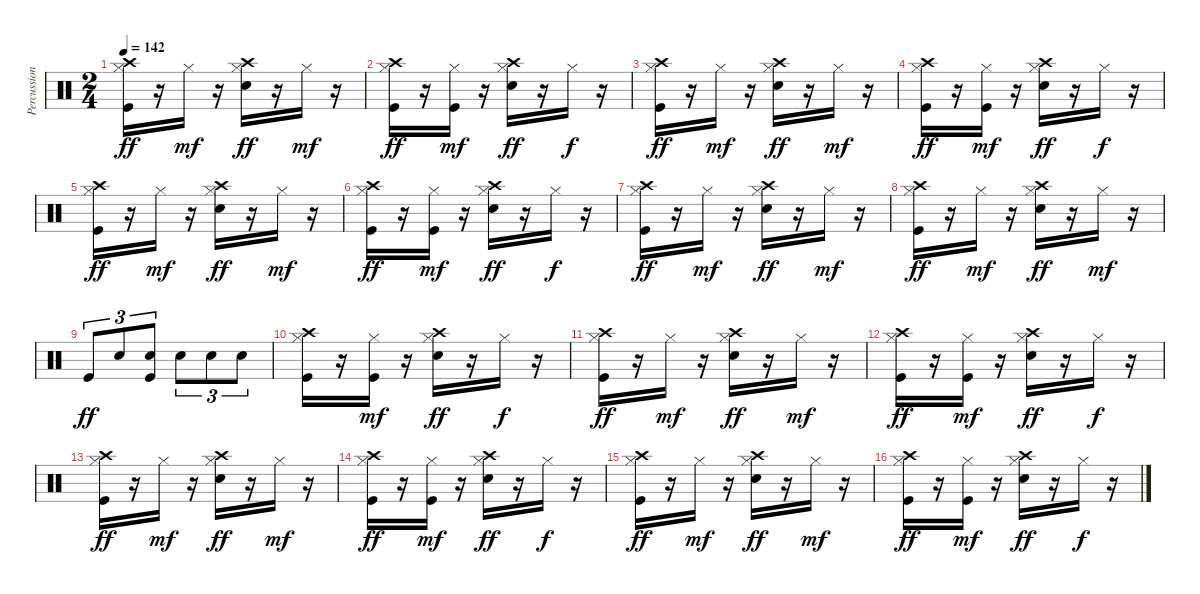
\track ("Percussion" "Percussion") {instrument percussion}
\staff {score}
\articulation defaults
\ts (2 4)
\tempo 142
\clef neutral
\ks c
("Kick (hit)" "Hi-Hat (closed)" "Crash high (hit)").16{dy ff} r.16 "Hi-Hat (closed)".16{dy mf} r.16 ("Snare (hit) 2" "Hi-Hat (closed)" "Crash high (hit)").16{dy ff} r.16 "Hi-Hat (closed)".16{dy mf} r.16 |
("Kick (hit)" "Hi-Hat (closed)" "Crash high (hit)").16{dy ff} r.16 ("Kick (hit)" "Hi-Hat (closed)").16{dy mf} r.16 ("Snare (hit) 2" "Hi-Hat (closed)" "Crash high (hit)").16{dy ff} r.16 "Hi-Hat (closed)".16{dy f} r.16 |
("Kick (hit)" "Hi-Hat (closed)" "Crash high (hit)").16{dy ff} r.16 "Hi-Hat (closed)".16{dy mf} r.16 ("Snare (hit) 2" "Hi-Hat (closed)" "Crash high (hit)").16{dy ff} r.16 "Hi-Hat (closed)".16{dy mf} r.16 |
("Kick (hit)" "Hi-Hat (closed)" "Crash high (hit)").16{dy ff} r.16 ("Kick (hit)" "Hi-Hat (closed)").16{dy mf} r.16 ("Snare (hit) 2" "Hi-Hat (closed)" "Crash high (hit)").16{dy ff} r.16 "Hi-Hat (closed)".16{dy f} r.16 |
("Kick (hit)" "Hi-Hat (closed)" "Crash high (hit)").16{dy ff} r.16 "Hi-Hat (closed)".16{dy mf} r.16 ("Snare (hit) 2" "Hi-Hat (closed)" "Crash high (hit)").16{dy ff} r.16 "Hi-Hat (closed)".16{dy mf} r.16 |
("Kick (hit)" "Hi-Hat (closed)" "Crash high (hit)").16{dy ff} r.16 ("Kick (hit)" "Hi-Hat (closed)").16{dy mf} r.16 ("Snare (hit) 2" "Hi-Hat (closed)" "Crash high (hit)").16{dy ff} r.16 "Hi-Hat (closed)".16{dy f} r.16 |
("Kick (hit)" "Hi-Hat (closed)" "Crash high (hit)").16{dy ff} r.16 "Hi-Hat (closed)".16{dy mf} r.16 ("Snare (hit) 2" "Hi-Hat (closed)" "Crash high (hit)").16{dy ff} r.16 "Hi-Hat (closed)".16{dy mf} r.16 |
("Kick (hit)" "Hi-Hat (closed)" "Crash high (hit)").16{dy ff} r.16 "Hi-Hat (closed)".16{dy mf} r.16 ("Snare (hit) 2" "Hi-Hat (closed)" "Crash high (hit)").16{dy ff} r.16 "Hi-Hat (closed)".16{dy mf} r.16 |
"Kick (hit)".8{tu (3 2) dy ff} "Snare (hit) 2".8{tu (3 2)} ("Kick (hit)" "Snare (hit) 2").8{tu (3 2)} "Snare (hit) 2".8{tu (3 2)} "Snare (hit) 2".8{tu (3 2)} "Snare (hit) 2".8{tu (3 2)} |
("Kick (hit)" "Hi-Hat (closed)" "Crash high (hit)").16 r.16 ("Kick (hit)" "Hi-Hat (closed)").16{dy mf} r.16 ("Snare (hit) 2" "Hi-Hat (closed)" "Crash high (hit)").16{dy ff} r.16 "Hi-Hat (closed)".16{dy f} r.16 |
("Kick (hit)" "Hi-Hat (closed)" "Crash high (hit)").16{dy ff} r.16 "Hi-Hat (closed)".16{dy mf} r.16 ("Snare (hit) 2" "Hi-Hat (closed)" "Crash high (hit)").16{dy ff} r.16 "Hi-Hat (closed)".16{dy mf} r.16 |
("Kick (hit)" "Hi-Hat (closed)" "Crash high (hit)").16{dy ff} r.16 ("Kick (hit)" "Hi-Hat (closed)").16{dy mf} r.16 ("Snare (hit) 2" "Hi-Hat (closed)" "Crash high (hit)").16{dy ff} r.16 "Hi-Hat (closed)".16{dy f} r.16 |
("Kick (hit)" "Hi-Hat (closed)" "Crash high (hit)").16{dy ff} r.16 "Hi-Hat (closed)".16{dy mf} r.16 ("Snare (hit) 2" "Hi-Hat (closed)" "Crash high (hit)").16{dy ff} r.16 "Hi-Hat (closed)".16{dy mf} r.16 |
("Kick (hit)" "Hi-Hat (closed)" "Crash high (hit)").16{dy ff} r.16 ("Kick (hit)" "Hi-Hat (closed)").16{dy mf} r.16 ("Snare (hit) 2" "Hi-Hat (closed)" "Crash high (hit)").16{dy ff} r.16 "Hi-Hat (closed)".16{dy f} r.16 |
("Kick (hit)" "Hi-Hat (closed)" "Crash high (hit)").16{dy ff} r.16 "Hi-Hat (closed)".16{dy mf} r.16 ("Snare (hit) 2" "Hi-Hat (closed)" "Crash high (hit)").16{dy ff} r.16 "Hi-Hat (closed)".16{dy mf} r.16 |
("Kick (hit)" "Hi-Hat (closed)" "Crash high (hit)").16{dy ff} r.16 ("Kick (hit)" "Hi-Hat (closed)").16{dy mf} r.16 ("Snare (hit) 2" "Hi-Hat (closed)" "Crash high (hit)").16{dy ff} r.16 "Hi-Hat (closed)".16{dy f} r.16
